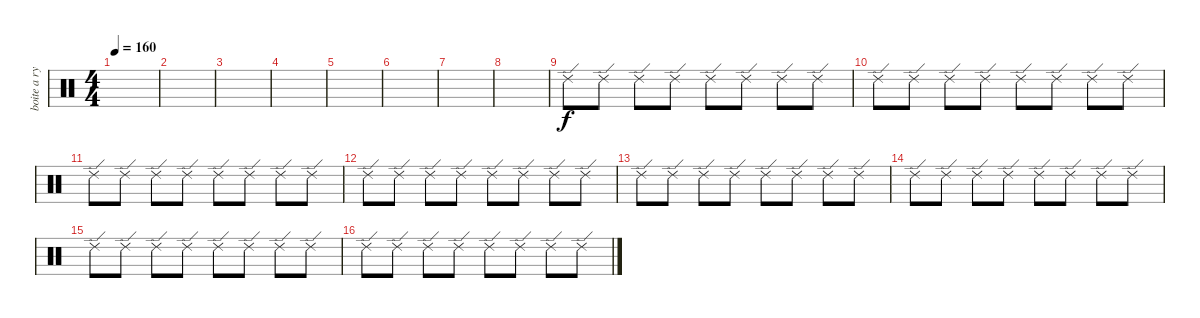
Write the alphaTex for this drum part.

\track ("boite a rythme" "boite a ry") {instrument percussion}
\staff {score}
\articulation defaults
\ts (4 4)
\tempo 160
\clef neutral
\ks c
|
|
|
|
|
|
|
|
"Ride (edge) 2".8 "Ride (edge) 2".8 "Ride (edge) 2".8 "Ride (edge) 2".8 "Ride (edge) 2".8 "Ride (edge) 2".8 "Ride (edge) 2".8 "Ride (edge) 2".8 |
"Ride (edge) 2".8 "Ride (edge) 2".8 "Ride (edge) 2".8 "Ride (edge) 2".8 "Ride (edge) 2".8 "Ride (edge) 2".8 "Ride (edge) 2".8 "Ride (edge) 2".8 |
"Ride (edge) 2".8 "Ride (edge) 2".8 "Ride (edge) 2".8 "Ride (edge) 2".8 "Ride (edge) 2".8 "Ride (edge) 2".8 "Ride (edge) 2".8 "Ride (edge) 2".8 |
"Ride (edge) 2".8 "Ride (edge) 2".8 "Ride (edge) 2".8 "Ride (edge) 2".8 "Ride (edge) 2".8 "Ride (edge) 2".8 "Ride (edge) 2".8 "Ride (edge) 2".8 |
"Ride (edge) 2".8 "Ride (edge) 2".8 "Ride (edge) 2".8 "Ride (edge) 2".8 "Ride (edge) 2".8 "Ride (edge) 2".8 "Ride (edge) 2".8 "Ride (edge) 2".8 |
"Ride (edge) 2".8 "Ride (edge) 2".8 "Ride (edge) 2".8 "Ride (edge) 2".8 "Ride (edge) 2".8 "Ride (edge) 2".8 "Ride (edge) 2".8 "Ride (edge) 2".8 |
"Ride (edge) 2".8 "Ride (edge) 2".8 "Ride (edge) 2".8 "Ride (edge) 2".8 "Ride (edge) 2".8 "Ride (edge) 2".8 "Ride (edge) 2".8 "Ride (edge) 2".8 |
"Ride (edge) 2".8 "Ride (edge) 2".8 "Ride (edge) 2".8 "Ride (edge) 2".8 "Ride (edge) 2".8 "Ride (edge) 2".8 "Ride (edge) 2".8 "Ride (edge) 2".8
